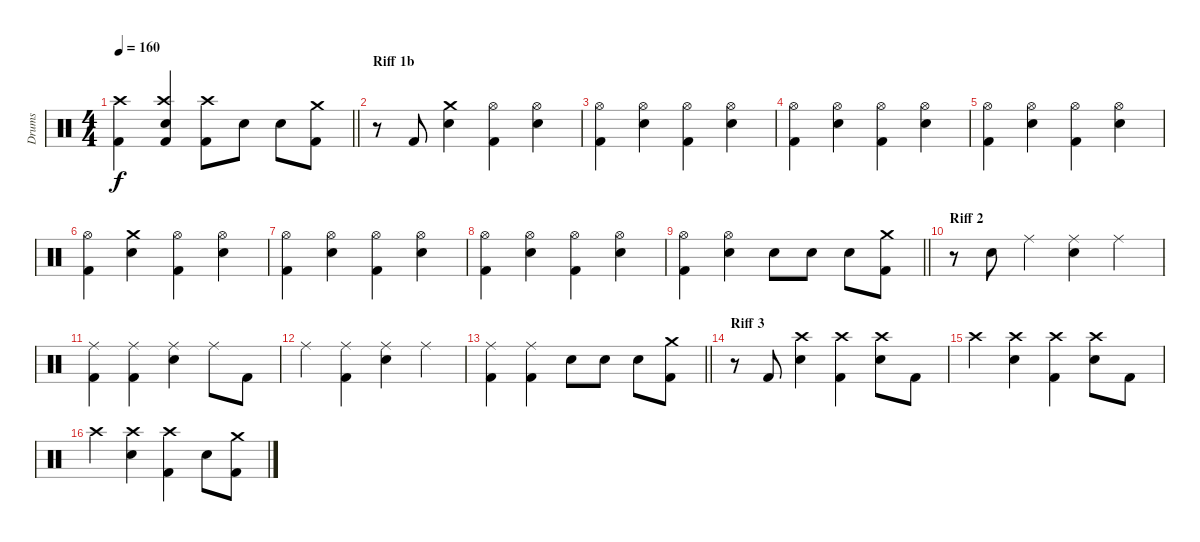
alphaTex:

\track ("Drums" "Drums") {instrument percussion}
\staff {score}
\articulation defaults
\ts (4 4)
\tempo 160
\clef neutral
\barLineRight lightlight
\ks c
("Kick (hit) 2" "Crash high (hit)").4{dy f} ("Kick (hit) 2" "Electric Snare (hit)" "Crash high (hit)").4 ("Kick (hit) 2" "Crash high (hit)").8 "Electric Snare (hit)".8 "Electric Snare (hit)".8 ("Kick (hit) 2" "Crash medium (hit)").8 |
\section ("" "Riff 1b")
r.8 "Kick (hit) 2".8 ("Crash medium (hit)" "Electric Snare (hit)").4 ("Kick (hit) 2" "Hi-Hat (open)").4 ("Electric Snare (hit)" "Hi-Hat (open)").4 |
("Kick (hit) 2" "Hi-Hat (open)").4 ("Electric Snare (hit)" "Hi-Hat (open)").4 ("Kick (hit) 2" "Hi-Hat (open)").4 ("Electric Snare (hit)" "Hi-Hat (open)").4 |
("Kick (hit) 2" "Hi-Hat (open)").4 ("Electric Snare (hit)" "Hi-Hat (open)").4 ("Kick (hit) 2" "Hi-Hat (open)").4 ("Electric Snare (hit)" "Hi-Hat (open)").4 |
("Kick (hit) 2" "Hi-Hat (open)").4 ("Electric Snare (hit)" "Hi-Hat (open)").4 ("Kick (hit) 2" "Hi-Hat (open)").4 ("Electric Snare (hit)" "Hi-Hat (open)").4 |
("Kick (hit) 2" "Hi-Hat (open)").4 ("Electric Snare (hit)" "Crash medium (hit)").4 ("Kick (hit) 2" "Hi-Hat (open)").4 ("Electric Snare (hit)" "Hi-Hat (open)").4 |
("Kick (hit) 2" "Hi-Hat (open)").4 ("Electric Snare (hit)" "Hi-Hat (open)").4 ("Kick (hit) 2" "Hi-Hat (open)").4 ("Electric Snare (hit)" "Hi-Hat (open)").4 |
("Kick (hit) 2" "Hi-Hat (open)").4 ("Electric Snare (hit)" "Hi-Hat (open)").4 ("Kick (hit) 2" "Hi-Hat (open)").4 ("Electric Snare (hit)" "Hi-Hat (open)").4 |
\barLineRight lightlight
("Kick (hit) 2" "Hi-Hat (open)").4 ("Electric Snare (hit)" "Hi-Hat (open)").4 "Electric Snare (hit)".8 "Electric Snare (hit)".8 "Electric Snare (hit)".8 ("Kick (hit) 2" "Crash medium (hit)").8 |
\section ("" "Riff 2")
r.8 "Electric Snare (hit)".8 "Ride (middle)".4 ("Ride (middle)" "Electric Snare (hit)").4 "Ride (middle)".4 |
("Ride (middle)" "Kick (hit) 2").4 ("Ride (middle)" "Kick (hit) 2").4 ("Ride (middle)" "Electric Snare (hit)").4 "Ride (middle)".8 "Kick (hit) 2".8 |
"Ride (middle)".4 ("Kick (hit) 2" "Ride (middle)").4 ("Ride (middle)" "Electric Snare (hit)").4 "Ride (middle)".4 |
\barLineRight lightlight
("Ride (middle)" "Kick (hit) 2").4 ("Ride (middle)" "Kick (hit) 2").4 "Electric Snare (hit)".8 "Electric Snare (hit)".8 "Electric Snare (hit)".8 ("Kick (hit) 2" "Crash medium (hit)").8 |
\section ("" "Riff 3")
r.8 "Kick (hit) 2".8 ("Crash high (hit)" "Electric Snare (hit)").4 ("Crash high (hit)" "Kick (hit) 2").4 ("Crash high (hit)" "Electric Snare (hit)").8 "Kick (hit) 2".8 |
"Crash high (hit)".4 ("Crash high (hit)" "Electric Snare (hit)").4 ("Crash high (hit)" "Kick (hit) 2").4 ("Crash high (hit)" "Electric Snare (hit)").8 "Kick (hit) 2".8 |
"Crash high (hit)".4 ("Crash high (hit)" "Electric Snare (hit)").4 ("Crash high (hit)" "Kick (hit) 2").4 "Electric Snare (hit)".8 ("Kick (hit) 2" "Crash medium (hit)").8
